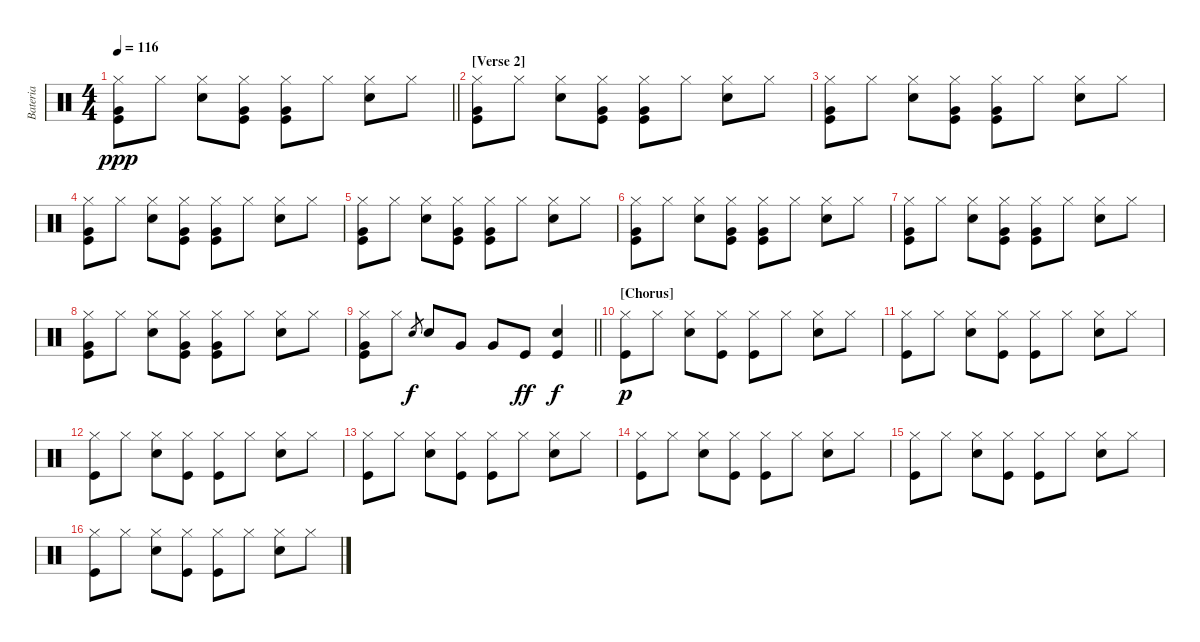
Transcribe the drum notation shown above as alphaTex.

\track ("Bateria" "Bateria") {instrument percussion}
\staff {score}
\articulation defaults
\ts (4 4)
\tempo 116
\clef neutral
\barLineRight lightlight
\ks c
("Hi-Hat (closed)" "Kick (hit)" "Very Low Tom (hit)").8{dy ppp} "Hi-Hat (closed)".8 ("Hi-Hat (closed)" "Snare (hit) 2").8 ("Hi-Hat (closed)" "Kick (hit)" "Very Low Tom (hit)").8 ("Hi-Hat (closed)" "Kick (hit)" "Very Low Tom (hit)").8 "Hi-Hat (closed)".8 ("Hi-Hat (closed)" "Snare (hit) 2").8 "Hi-Hat (closed)".8 |
\section ("" "[Verse 2]")
("Hi-Hat (closed)" "Kick (hit)" "Very Low Tom (hit)").8 "Hi-Hat (closed)".8 ("Hi-Hat (closed)" "Snare (hit) 2").8 ("Hi-Hat (closed)" "Kick (hit)" "Very Low Tom (hit)").8 ("Hi-Hat (closed)" "Kick (hit)" "Very Low Tom (hit)").8 "Hi-Hat (closed)".8 ("Hi-Hat (closed)" "Snare (hit) 2").8 "Hi-Hat (closed)".8 |
("Hi-Hat (closed)" "Kick (hit)" "Very Low Tom (hit)").8 "Hi-Hat (closed)".8 ("Hi-Hat (closed)" "Snare (hit) 2").8 ("Hi-Hat (closed)" "Kick (hit)" "Very Low Tom (hit)").8 ("Hi-Hat (closed)" "Kick (hit)" "Very Low Tom (hit)").8 "Hi-Hat (closed)".8 ("Hi-Hat (closed)" "Snare (hit) 2").8 "Hi-Hat (closed)".8 |
("Hi-Hat (closed)" "Kick (hit)" "Very Low Tom (hit)").8 "Hi-Hat (closed)".8 ("Hi-Hat (closed)" "Snare (hit) 2").8 ("Hi-Hat (closed)" "Kick (hit)" "Very Low Tom (hit)").8 ("Hi-Hat (closed)" "Kick (hit)" "Very Low Tom (hit)").8 "Hi-Hat (closed)".8 ("Hi-Hat (closed)" "Snare (hit) 2").8 "Hi-Hat (closed)".8 |
("Hi-Hat (closed)" "Kick (hit)" "Very Low Tom (hit)").8 "Hi-Hat (closed)".8 ("Hi-Hat (closed)" "Snare (hit) 2").8 ("Hi-Hat (closed)" "Kick (hit)" "Very Low Tom (hit)").8 ("Hi-Hat (closed)" "Kick (hit)" "Very Low Tom (hit)").8 "Hi-Hat (closed)".8 ("Hi-Hat (closed)" "Snare (hit) 2").8 "Hi-Hat (closed)".8 |
("Hi-Hat (closed)" "Kick (hit)" "Very Low Tom (hit)").8 "Hi-Hat (closed)".8 ("Hi-Hat (closed)" "Snare (hit) 2").8 ("Hi-Hat (closed)" "Kick (hit)" "Very Low Tom (hit)").8 ("Hi-Hat (closed)" "Kick (hit)" "Very Low Tom (hit)").8 "Hi-Hat (closed)".8 ("Hi-Hat (closed)" "Snare (hit) 2").8 "Hi-Hat (closed)".8 |
("Hi-Hat (closed)" "Kick (hit)" "Very Low Tom (hit)").8 "Hi-Hat (closed)".8 ("Hi-Hat (closed)" "Snare (hit) 2").8 ("Hi-Hat (closed)" "Kick (hit)" "Very Low Tom (hit)").8 ("Hi-Hat (closed)" "Kick (hit)" "Very Low Tom (hit)").8 "Hi-Hat (closed)".8 ("Hi-Hat (closed)" "Snare (hit) 2").8 "Hi-Hat (closed)".8 |
("Hi-Hat (closed)" "Kick (hit)" "Very Low Tom (hit)").8 "Hi-Hat (closed)".8 ("Hi-Hat (closed)" "Snare (hit) 2").8 ("Hi-Hat (closed)" "Kick (hit)" "Very Low Tom (hit)").8 ("Hi-Hat (closed)" "Kick (hit)" "Very Low Tom (hit)").8 "Hi-Hat (closed)".8 ("Hi-Hat (closed)" "Snare (hit) 2").8 "Hi-Hat (closed)".8 |
\barLineRight lightlight
("Hi-Hat (closed)" "Kick (hit)" "Very Low Tom (hit)").8 "Hi-Hat (closed)".8 "Snare (hit) 2".8{gr dy f} "Snare (hit) 2".8 "Very Low Tom (hit)".8 "Very Low Tom (hit)".8 "Kick (hit)".8{dy ff} ("Snare (hit) 2" "Kick (hit)").4{dy f} |
\section ("" "[Chorus]")
("Hi-Hat (closed)" "Kick (hit)").8{dy p} "Hi-Hat (closed)".8 ("Hi-Hat (closed)" "Snare (hit) 2").8 ("Hi-Hat (closed)" "Kick (hit)").8 ("Hi-Hat (closed)" "Kick (hit)").8 "Hi-Hat (closed)".8 ("Hi-Hat (closed)" "Snare (hit) 2").8 "Hi-Hat (closed)".8 |
("Hi-Hat (closed)" "Kick (hit)").8 "Hi-Hat (closed)".8 ("Hi-Hat (closed)" "Snare (hit) 2").8 ("Hi-Hat (closed)" "Kick (hit)").8 ("Hi-Hat (closed)" "Kick (hit)").8 "Hi-Hat (closed)".8 ("Hi-Hat (closed)" "Snare (hit) 2").8 "Hi-Hat (closed)".8 |
("Hi-Hat (closed)" "Kick (hit)").8 "Hi-Hat (closed)".8 ("Hi-Hat (closed)" "Snare (hit) 2").8 ("Hi-Hat (closed)" "Kick (hit)").8 ("Hi-Hat (closed)" "Kick (hit)").8 "Hi-Hat (closed)".8 ("Hi-Hat (closed)" "Snare (hit) 2").8 "Hi-Hat (closed)".8 |
("Hi-Hat (closed)" "Kick (hit)").8 "Hi-Hat (closed)".8 ("Hi-Hat (closed)" "Snare (hit) 2").8 ("Hi-Hat (closed)" "Kick (hit)").8 ("Hi-Hat (closed)" "Kick (hit)").8 "Hi-Hat (closed)".8 ("Hi-Hat (closed)" "Snare (hit) 2").8 "Hi-Hat (closed)".8 |
("Hi-Hat (closed)" "Kick (hit)").8 "Hi-Hat (closed)".8 ("Hi-Hat (closed)" "Snare (hit) 2").8 ("Hi-Hat (closed)" "Kick (hit)").8 ("Hi-Hat (closed)" "Kick (hit)").8 "Hi-Hat (closed)".8 ("Hi-Hat (closed)" "Snare (hit) 2").8 "Hi-Hat (closed)".8 |
("Hi-Hat (closed)" "Kick (hit)").8 "Hi-Hat (closed)".8 ("Hi-Hat (closed)" "Snare (hit) 2").8 ("Hi-Hat (closed)" "Kick (hit)").8 ("Hi-Hat (closed)" "Kick (hit)").8 "Hi-Hat (closed)".8 ("Hi-Hat (closed)" "Snare (hit) 2").8 "Hi-Hat (closed)".8 |
("Hi-Hat (closed)" "Kick (hit)").8 "Hi-Hat (closed)".8 ("Hi-Hat (closed)" "Snare (hit) 2").8 ("Hi-Hat (closed)" "Kick (hit)").8 ("Hi-Hat (closed)" "Kick (hit)").8 "Hi-Hat (closed)".8 ("Hi-Hat (closed)" "Snare (hit) 2").8 "Hi-Hat (closed)".8
